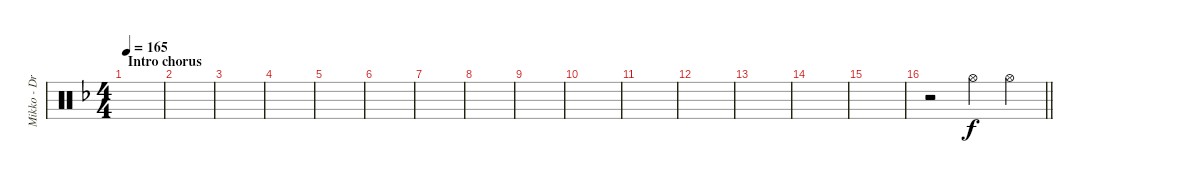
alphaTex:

\track ("Mikko - Drums" "Mikko - Dr") {instrument percussion}
\staff {score}
\articulation defaults
\ts (4 4)
\section ("" "Intro chorus")
\tempo 165
\clef neutral
\ks dminor
|
|
|
|
|
|
|
|
|
|
|
|
|
|
|
\barLineRight lightlight
r.2 "Hi-Hat (open)".4 "Hi-Hat (open)".4
